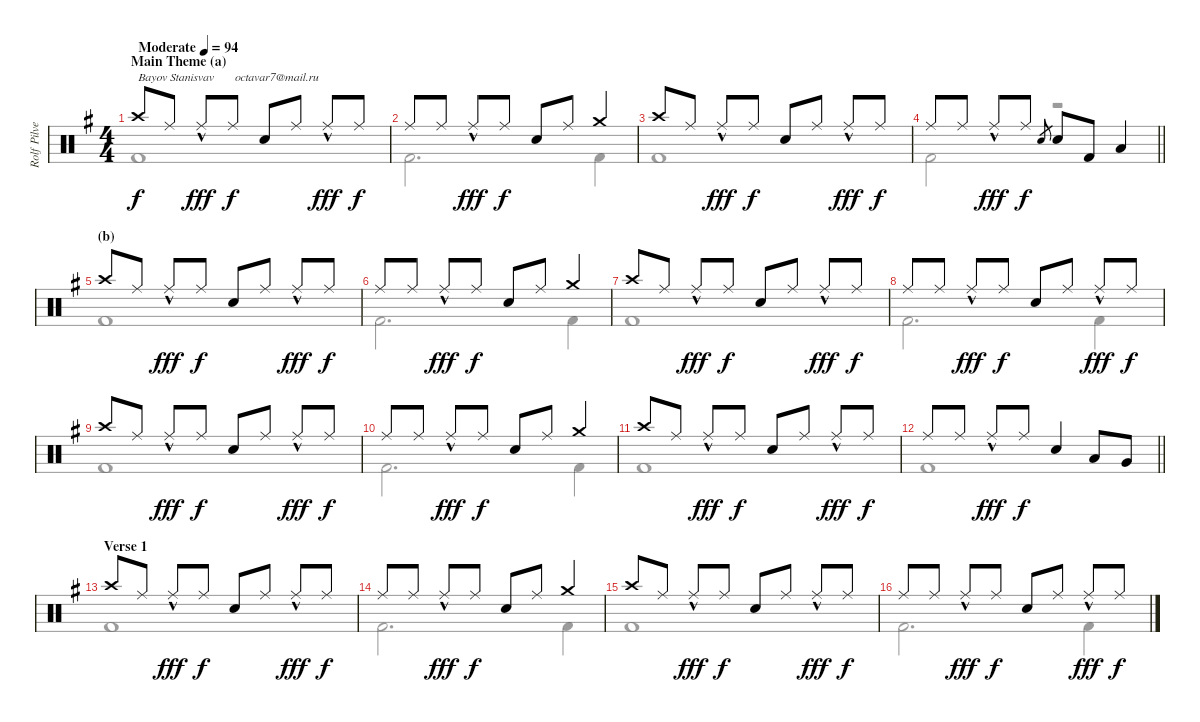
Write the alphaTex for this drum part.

\track ("Rolf Pilve - drums" "Rolf Pilve") {instrument percussion}
\staff {score}
\articulation defaults
\voice
\ts (4 4)
\section ("" "Main Theme (a)")
\tempo (94 "Moderate")
\clef neutral
\ks eminor "Crash high (hit)".8{txt "Bayov Stanisvav       octavar7@mail.ru" dy f} "Ride (middle)".8 "Ride (middle)"{hac}.8{dy fff} "Ride (middle)".8{dy f} "Snare (hit) 2".8 "Ride (middle)".8 "Ride (middle)"{hac}.8{dy fff} "Ride (middle)".8{dy f}
|
"Ride (middle)".8 "Ride (middle)".8 "Ride (middle)"{hac}.8{dy fff} "Ride (middle)".8{dy f} "Snare (hit) 2".8 "Ride (middle)".8 "Crash medium (hit)".4 |
"Crash high (hit)".8 "Ride (middle)".8 "Ride (middle)"{hac}.8{dy fff} "Ride (middle)".8{dy f} "Snare (hit) 2".8 "Ride (middle)".8 "Ride (middle)"{hac}.8{dy fff} "Ride (middle)".8{dy f} |
\barLineRight lightlight "Ride (middle)".8 "Ride (middle)".8 "Ride (middle)"{hac}.8{dy fff} "Ride (middle)".8{dy f} "Snare (hit) 2".8{gr} "Snare (hit) 2".8 "Kick (hit) 2".8 "Low Tom (hit)".4
|
\section ("" "(b)")
"Crash high (hit)".8 "Ride (middle)".8 "Ride (middle)"{hac}.8{dy fff} "Ride (middle)".8{dy f} "Snare (hit) 2".8 "Ride (middle)".8 "Ride (middle)"{hac}.8{dy fff} "Ride (middle)".8{dy f} |
"Ride (middle)".8 "Ride (middle)".8 "Ride (middle)"{hac}.8{dy fff} "Ride (middle)".8{dy f} "Snare (hit) 2".8 "Ride (middle)".8 "Crash medium (hit)".4 |
"Crash high (hit)".8 "Ride (middle)".8 "Ride (middle)"{hac}.8{dy fff} "Ride (middle)".8{dy f} "Snare (hit) 2".8 "Ride (middle)".8 "Ride (middle)"{hac}.8{dy fff} "Ride (middle)".8{dy f} |
"Ride (middle)".8 "Ride (middle)".8 "Ride (middle)"{hac}.8{dy fff} "Ride (middle)".8{dy f} "Snare (hit) 2".8 "Ride (middle)".8 "Ride (middle)"{hac}.8{dy fff} "Ride (middle)".8{dy f} |
"Crash high (hit)".8 "Ride (middle)".8 "Ride (middle)"{hac}.8{dy fff} "Ride (middle)".8{dy f} "Snare (hit) 2".8 "Ride (middle)".8 "Ride (middle)"{hac}.8{dy fff} "Ride (middle)".8{dy f} |
"Ride (middle)".8 "Ride (middle)".8 "Ride (middle)"{hac}.8{dy fff} "Ride (middle)".8{dy f} "Snare (hit) 2".8 "Ride (middle)".8 "Crash medium (hit)".4 |
"Crash high (hit)".8 "Ride (middle)".8 "Ride (middle)"{hac}.8{dy fff} "Ride (middle)".8{dy f} "Snare (hit) 2".8 "Ride (middle)".8 "Ride (middle)"{hac}.8{dy fff} "Ride (middle)".8{dy f} |
\barLineRight lightlight "Ride (middle)".8 "Ride (middle)".8 "Ride (middle)"{hac}.8{dy fff} "Ride (middle)".8{dy f} "Snare (hit) 2".4 "Low Tom (hit)".8 "Very Low Tom (hit)".8
|
\section ("" "Verse 1")
"Crash high (hit)".8 "Ride (middle)".8 "Ride (middle)"{hac}.8{dy fff} "Ride (middle)".8{dy f} "Snare (hit) 2".8 "Ride (middle)".8 "Ride (middle)"{hac}.8{dy fff} "Ride (middle)".8{dy f} |
"Ride (middle)".8 "Ride (middle)".8 "Ride (middle)"{hac}.8{dy fff} "Ride (middle)".8{dy f} "Snare (hit) 2".8 "Ride (middle)".8 "Crash medium (hit)".4 |
"Crash high (hit)".8 "Ride (middle)".8 "Ride (middle)"{hac}.8{dy fff} "Ride (middle)".8{dy f} "Snare (hit) 2".8 "Ride (middle)".8 "Ride (middle)"{hac}.8{dy fff} "Ride (middle)".8{dy f} |
"Ride (middle)".8 "Ride (middle)".8 "Ride (middle)"{hac}.8{dy fff} "Ride (middle)".8{dy f} "Snare (hit) 2".8 "Ride (middle)".8 "Ride (middle)"{hac}.8{dy fff} "Ride (middle)".8{dy f}
\voice
\clef neutral
\ottava regular
\simile none
\ks eminor "Kick (hit) 2".1{dy f}
|
"Kick (hit) 2".2{d} "Kick (hit) 2".4 |
"Kick (hit) 2".1 |
\barLineRight lightlight "Kick (hit) 2".2
r.2 |
"Kick (hit) 2".1 |
"Kick (hit) 2".2{d} "Kick (hit) 2".4 |
"Kick (hit) 2".1 |
"Kick (hit) 2".2{d} "Kick (hit) 2".4 |
"Kick (hit) 2".1 |
"Kick (hit) 2".2{d} "Kick (hit) 2".4 |
"Kick (hit) 2".1 |
\barLineRight lightlight "Kick (hit) 2".1
|
"Kick (hit) 2".1 |
"Kick (hit) 2".2{d} "Kick (hit) 2".4 |
"Kick (hit) 2".1 |
"Kick (hit) 2".2{d} "Kick (hit) 2".4
